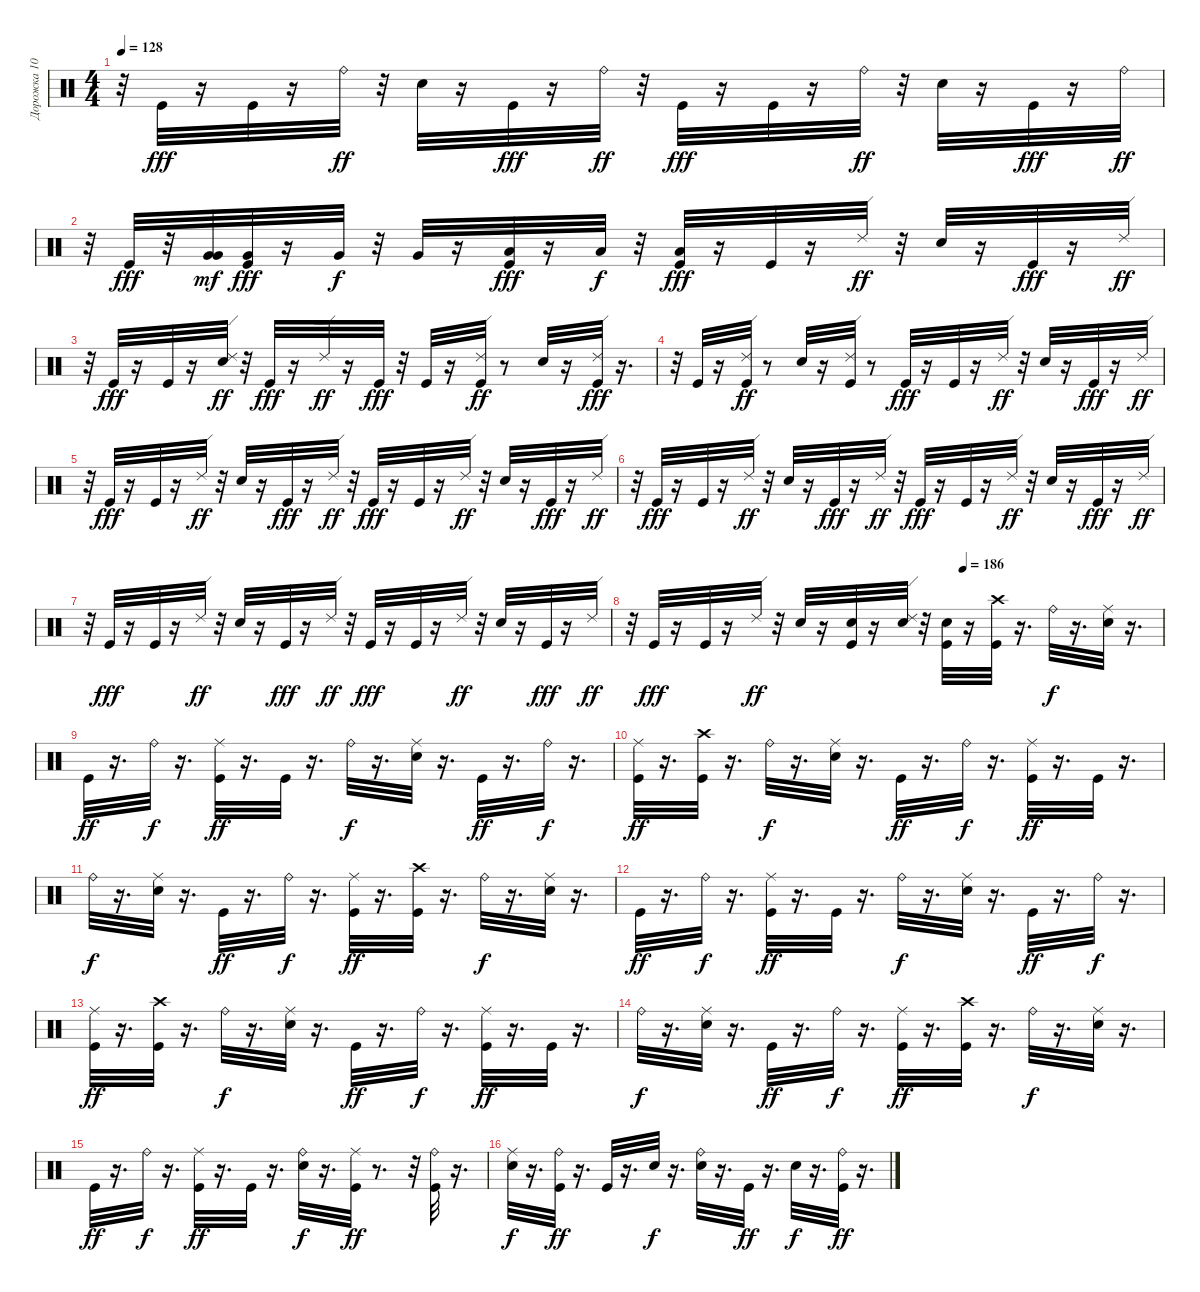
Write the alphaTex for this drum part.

\track ("Дорожка 10" "Дорожка 10") {instrument percussion}
\staff {score}
\articulation defaults
\ts (4 4)
\tempo 128
\clef neutral
\ks c
r.32{dy ff} "Kick (hit)".32{dy fff} r.16 "Kick (hit)".32 r.16 "Ride (bell)".32{dy ff} r.32 "Electric Snare (hit)".32 r.16 "Kick (hit)".32{dy fff} r.16 "Ride (bell)".32{dy ff} r.32 "Kick (hit)".32{dy fff} r.16 "Kick (hit)".32 r.16 "Ride (bell)".32{dy ff} r.32 "Electric Snare (hit)".32 r.16 "Kick (hit)".32{dy fff} r.16 "Ride (bell)".32{dy ff} |
r.32 "Kick (hit)".32{dy fff} r.32 ("Very Low Tom (hit)" "Very Low Tom (hit)").32{dy mf} ("Kick (hit)" "Very Low Tom (hit)").32{dy fff} r.16 "Very Low Tom (hit)".32{dy f} r.32 "Very Low Tom (hit)".32 r.16 ("Kick (hit)" "Low Floor Tom (hit)").32{dy fff} r.16 "Low Floor Tom (hit)".32{dy f} r.32 ("Low Floor Tom (hit)" "Kick (hit)").32{dy fff} r.16 "Kick (hit)".32 r.16 "Ride (edge) 2".32{dy ff} r.32 "Electric Snare (hit)".32 r.16 "Kick (hit)".32{dy fff} r.16 "Ride (edge) 2".32{dy ff} |
r.32 "Kick (hit)".32{dy fff} r.16 "Kick (hit)".32 r.16 ("Electric Snare (hit)" "Ride (edge) 2").32{dy ff} r.32 "Kick (hit)".32{dy fff} r.16 "Ride (edge) 2".32{dy ff} r.16 "Kick (hit)".32{dy fff} r.32 "Kick (hit)".32 r.16 ("Kick (hit)" "Ride (edge) 2").32{dy ff} r.8 "Electric Snare (hit)".32 r.16 ("Ride (edge) 2" "Kick (hit)").32{dy fff} r.16{d} |
r.32 "Kick (hit)".32 r.16 ("Kick (hit)" "Ride (edge) 2").32{dy ff} r.8 "Electric Snare (hit)".32 r.16 ("Kick (hit)" "Ride (edge) 2").32 r.8 "Kick (hit)".32{dy fff} r.16 "Kick (hit)".32 r.16 "Ride (edge) 2".32{dy ff} r.32 "Electric Snare (hit)".32 r.16 "Kick (hit)".32{dy fff} r.16 "Ride (edge) 2".32{dy ff} |
r.32 "Kick (hit)".32{dy fff} r.16 "Kick (hit)".32 r.16 "Ride (edge) 2".32{dy ff} r.32 "Electric Snare (hit)".32 r.16 "Kick (hit)".32{dy fff} r.16 "Ride (edge) 2".32{dy ff} r.32 "Kick (hit)".32{dy fff} r.16 "Kick (hit)".32 r.16 "Ride (edge) 2".32{dy ff} r.32 "Electric Snare (hit)".32 r.16 "Kick (hit)".32{dy fff} r.16 "Ride (edge) 2".32{dy ff} |
r.32 "Kick (hit)".32{dy fff} r.16 "Kick (hit)".32 r.16 "Ride (edge) 2".32{dy ff} r.32 "Electric Snare (hit)".32 r.16 "Kick (hit)".32{dy fff} r.16 "Ride (edge) 2".32{dy ff} r.32 "Kick (hit)".32{dy fff} r.16 "Kick (hit)".32 r.16 "Ride (edge) 2".32{dy ff} r.32 "Electric Snare (hit)".32 r.16 "Kick (hit)".32{dy fff} r.16 "Ride (edge) 2".32{dy ff} |
r.32 "Kick (hit)".32{dy fff} r.16 "Kick (hit)".32 r.16 "Ride (edge) 2".32{dy ff} r.32 "Electric Snare (hit)".32 r.16 "Kick (hit)".32{dy fff} r.16 "Ride (edge) 2".32{dy ff} r.32 "Kick (hit)".32{dy fff} r.16 "Kick (hit)".32 r.16 "Ride (edge) 2".32{dy ff} r.32 "Electric Snare (hit)".32 r.16 "Kick (hit)".32{dy fff} r.16 "Ride (edge) 2".32{dy ff} |
\tempo (186 0.625)
r.32 "Kick (hit)".32{dy fff} r.16 "Kick (hit)".32 r.16 "Ride (edge) 2".32{dy ff} r.32 "Electric Snare (hit)".32 r.16 ("Kick (hit)" "Electric Snare (hit)").32 r.16 ("Electric Snare (hit)" "Ride (edge) 2").32 r.32 ("Kick (hit)" "Electric Snare (hit)").32 r.16 ("Crash high (hit)" "Kick (hit)").32 r.16{d} "Ride (bell)".32{dy f} r.16{d} ("Electric Snare (hit)" "Ride (middle)").32 r.16{d} |
"Kick (hit)".32{dy ff} r.16{d} "Ride (bell)".32{dy f} r.16{d} ("Kick (hit)" "Ride (middle)").32{dy ff} r.16{d} "Kick (hit)".32 r.16{d} "Ride (bell)".32{dy f} r.16{d} ("Electric Snare (hit)" "Ride (middle)").32 r.16{d} "Kick (hit)".32{dy ff} r.16{d} "Ride (bell)".32{dy f} r.16{d} |
("Ride (middle)" "Kick (hit)").32{dy ff} r.16{d} ("Crash high (hit)" "Kick (hit)").32 r.16{d} "Ride (bell)".32{dy f} r.16{d} ("Ride (middle)" "Electric Snare (hit)").32 r.16{d} "Kick (hit)".32{dy ff} r.16{d} "Ride (bell)".32{dy f} r.16{d} ("Kick (hit)" "Ride (middle)").32{dy ff} r.16{d} "Kick (hit)".32 r.16{d} |
"Ride (bell)".32{dy f} r.16{d} ("Ride (middle)" "Electric Snare (hit)").32 r.16{d} "Kick (hit)".32{dy ff} r.16{d} "Ride (bell)".32{dy f} r.16{d} ("Ride (middle)" "Kick (hit)").32{dy ff} r.16{d} ("Crash high (hit)" "Kick (hit)").32 r.16{d} "Ride (bell)".32{dy f} r.16{d} ("Electric Snare (hit)" "Ride (middle)").32 r.16{d} |
"Kick (hit)".32{dy ff} r.16{d} "Ride (bell)".32{dy f} r.16{d} ("Ride (middle)" "Kick (hit)").32{dy ff} r.16{d} "Kick (hit)".32 r.16{d} "Ride (bell)".32{dy f} r.16{d} ("Ride (middle)" "Electric Snare (hit)").32 r.16{d} "Kick (hit)".32{dy ff} r.16{d} "Ride (bell)".32{dy f} r.16{d} |
("Kick (hit)" "Ride (middle)").32{dy ff} r.16{d} ("Crash high (hit)" "Kick (hit)").32 r.16{d} "Ride (bell)".32{dy f} r.16{d} ("Ride (middle)" "Electric Snare (hit)").32 r.16{d} "Kick (hit)".32{dy ff} r.16{d} "Ride (bell)".32{dy f} r.16{d} ("Kick (hit)" "Ride (middle)").32{dy ff} r.16{d} "Kick (hit)".32 r.16{d} |
"Ride (bell)".32{dy f} r.16{d} ("Electric Snare (hit)" "Ride (middle)").32 r.16{d} "Kick (hit)".32{dy ff} r.16{d} "Ride (bell)".32{dy f} r.16{d} ("Ride (middle)" "Kick (hit)").32{dy ff} r.16{d} ("Kick (hit)" "Crash high (hit)").32 r.16{d} "Ride (bell)".32{dy f} r.16{d} ("Electric Snare (hit)" "Ride (middle)").32 r.16{d} |
"Kick (hit)".32{dy ff} r.16{d} "Ride (bell)".32{dy f} r.16{d} ("Kick (hit)" "Ride (middle)").32{dy ff} r.16{d} "Kick (hit)".32 r.16{d} ("Electric Snare (hit)" "Ride (bell)").32{dy f} r.16{d} ("Kick (hit)" "Ride (middle)").32{dy ff} r.8{d} r.32 ("Kick (hit)" "Ride (bell)").32 r.16{d} |
("Ride (middle)" "Electric Snare (hit)").32{dy f} r.16{d} ("Ride (bell)" "Kick (hit)").32{dy ff} r.16{d} "Kick (hit)".32 r.16{d} "Electric Snare (hit)".32{dy f} r.16{d} ("Ride (bell)" "Electric Snare (hit)").32 r.16{d} "Kick (hit)".32{dy ff} r.16{d} "Electric Snare (hit)".32{dy f} r.16{d} ("Ride (bell)" "Kick (hit)").32{dy ff} r.16{d}
